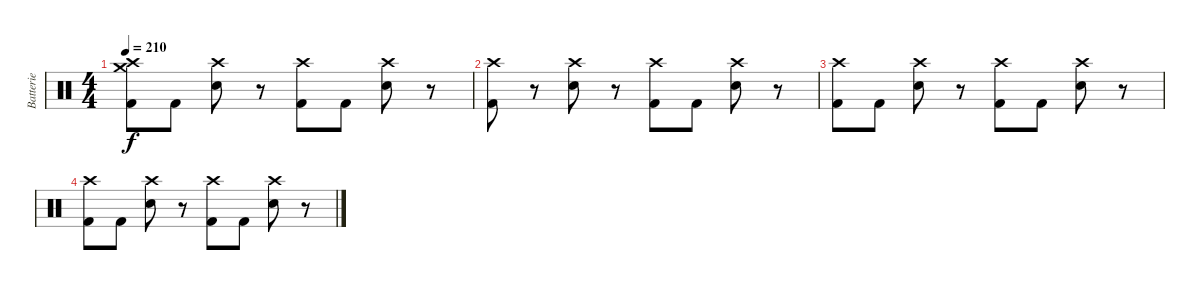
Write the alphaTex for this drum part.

\track ("Batterie" "Batterie") {instrument percussion}
\staff {score}
\articulation defaults
\ts (4 4)
\tempo 210
\clef neutral
\ks c
("Crash high (hit)" "Crash medium (hit)" "Kick (hit) 2").8{dy f} "Kick (hit) 2".8 ("Crash high (hit)" "Snare (hit) 2").8 r.8 ("Crash high (hit)" "Kick (hit) 2").8 "Kick (hit) 2".8 ("Crash high (hit)" "Snare (hit) 2").8 r.8 |
("Crash high (hit)" "Kick (hit) 2").8 r.8 ("Crash high (hit)" "Snare (hit) 2").8 r.8 ("Crash high (hit)" "Kick (hit) 2").8 "Kick (hit) 2".8 ("Crash high (hit)" "Snare (hit) 2").8 r.8 |
("Crash high (hit)" "Kick (hit) 2").8 "Kick (hit) 2".8 ("Crash high (hit)" "Snare (hit) 2").8 r.8 ("Crash high (hit)" "Kick (hit) 2").8 "Kick (hit) 2".8 ("Crash high (hit)" "Snare (hit) 2").8 r.8 |
("Crash high (hit)" "Kick (hit) 2").8 "Kick (hit) 2".8 ("Crash high (hit)" "Snare (hit) 2").8 r.8 ("Crash high (hit)" "Kick (hit) 2").8 "Kick (hit) 2".8 ("Crash high (hit)" "Snare (hit) 2").8 r.8
